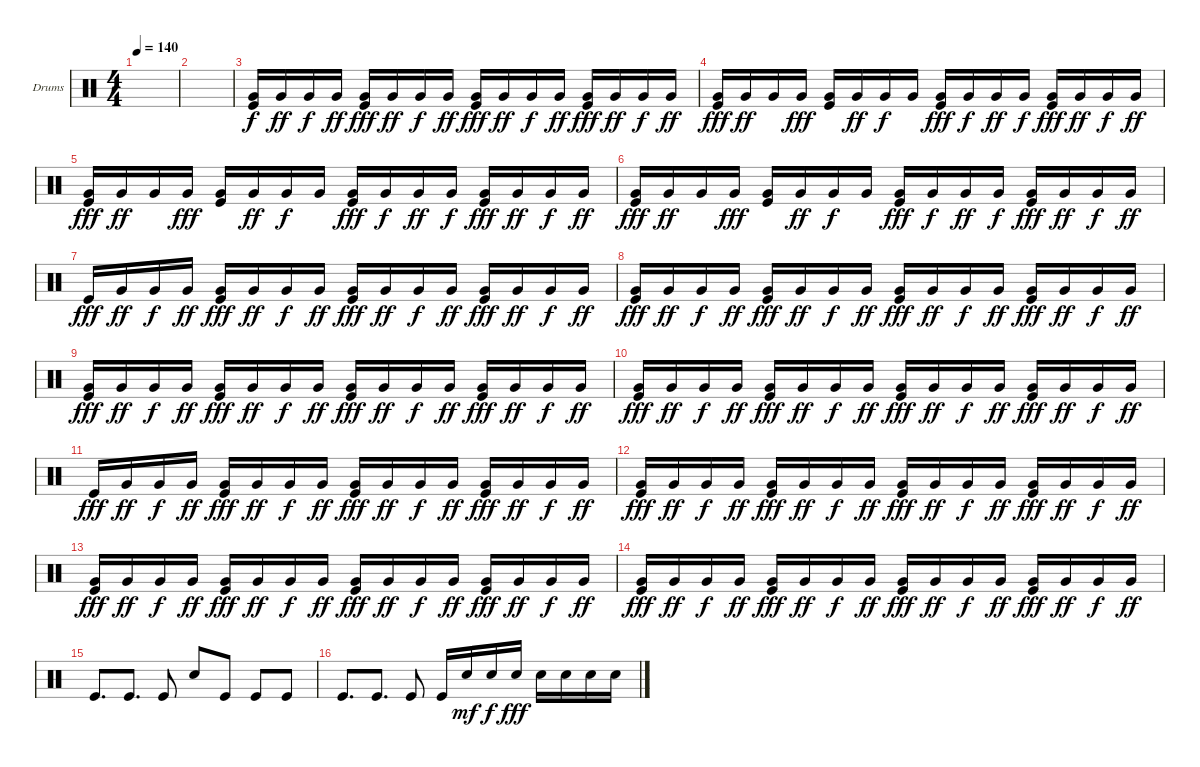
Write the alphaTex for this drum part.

\defaultSystemsLayout 4
\bracketExtendMode groupsimilarinstruments
\firstSystemTrackNameOrientation horizontal
\otherSystemsTrackNameOrientation horizontal
\track ("Helders" "Drums") {instrument percussion}
\staff {score}
\articulation defaults
\ts (4 4)
\tempo 140
\clef neutral
\ks c
|
|
("Very Low Tom (hit)" "Kick (hit)").16 "Very Low Tom (hit)".16{dy ff} "Very Low Tom (hit)".16{dy f} "Very Low Tom (hit)".16{dy ff} ("Very Low Tom (hit)" "Kick (hit)").16{dy fff} "Very Low Tom (hit)".16{dy ff} "Very Low Tom (hit)".16{dy f} "Very Low Tom (hit)".16{dy ff} ("Very Low Tom (hit)" "Kick (hit)").16{dy fff} "Very Low Tom (hit)".16{dy ff} "Very Low Tom (hit)".16{dy f} "Very Low Tom (hit)".16{dy ff} ("Very Low Tom (hit)" "Kick (hit)").16{dy fff} "Very Low Tom (hit)".16{dy ff} "Very Low Tom (hit)".16{dy f} "Very Low Tom (hit)".16{dy ff} |
("Very Low Tom (hit)" "Kick (hit)").16{dy fff} "Very Low Tom (hit)".16{dy ff} "Very Low Tom (hit)".16 "Very Low Tom (hit)".16{dy fff} ("Very Low Tom (hit)" "Kick (hit)").16 "Very Low Tom (hit)".16{dy ff} "Very Low Tom (hit)".16{dy f} "Very Low Tom (hit)".16 ("Very Low Tom (hit)" "Kick (hit)").16{dy fff} "Very Low Tom (hit)".16{dy f} "Very Low Tom (hit)".16{dy ff} "Very Low Tom (hit)".16{dy f} ("Very Low Tom (hit)" "Kick (hit)").16{dy fff} "Very Low Tom (hit)".16{dy ff} "Very Low Tom (hit)".16{dy f} "Very Low Tom (hit)".16{dy ff} |
("Very Low Tom (hit)" "Kick (hit)").16{dy fff} "Very Low Tom (hit)".16{dy ff} "Very Low Tom (hit)".16 "Very Low Tom (hit)".16{dy fff} ("Very Low Tom (hit)" "Kick (hit)").16 "Very Low Tom (hit)".16{dy ff} "Very Low Tom (hit)".16{dy f} "Very Low Tom (hit)".16 ("Very Low Tom (hit)" "Kick (hit)").16{dy fff} "Very Low Tom (hit)".16{dy f} "Very Low Tom (hit)".16{dy ff} "Very Low Tom (hit)".16{dy f} ("Very Low Tom (hit)" "Kick (hit)").16{dy fff} "Very Low Tom (hit)".16{dy ff} "Very Low Tom (hit)".16{dy f} "Very Low Tom (hit)".16{dy ff} |
("Very Low Tom (hit)" "Kick (hit)").16{dy fff} "Very Low Tom (hit)".16{dy ff} "Very Low Tom (hit)".16 "Very Low Tom (hit)".16{dy fff} ("Very Low Tom (hit)" "Kick (hit)").16 "Very Low Tom (hit)".16{dy ff} "Very Low Tom (hit)".16{dy f} "Very Low Tom (hit)".16 ("Very Low Tom (hit)" "Kick (hit)").16{dy fff} "Very Low Tom (hit)".16{dy f} "Very Low Tom (hit)".16{dy ff} "Very Low Tom (hit)".16{dy f} ("Very Low Tom (hit)" "Kick (hit)").16{dy fff} "Very Low Tom (hit)".16{dy ff} "Very Low Tom (hit)".16{dy f} "Very Low Tom (hit)".16{dy ff} |
"Kick (hit)".16{dy fff} "Very Low Tom (hit)".16{dy ff} "Very Low Tom (hit)".16{dy f} "Very Low Tom (hit)".16{dy ff} ("Very Low Tom (hit)" "Kick (hit)").16{dy fff} "Very Low Tom (hit)".16{dy ff} "Very Low Tom (hit)".16{dy f} "Very Low Tom (hit)".16{dy ff} ("Very Low Tom (hit)" "Kick (hit)").16{dy fff} "Very Low Tom (hit)".16{dy ff} "Very Low Tom (hit)".16{dy f} "Very Low Tom (hit)".16{dy ff} ("Very Low Tom (hit)" "Kick (hit)").16{dy fff} "Very Low Tom (hit)".16{dy ff} "Very Low Tom (hit)".16{dy f} "Very Low Tom (hit)".16{dy ff} |
("Very Low Tom (hit)" "Kick (hit)").16{dy fff} "Very Low Tom (hit)".16{dy ff} "Very Low Tom (hit)".16{dy f} "Very Low Tom (hit)".16{dy ff} ("Very Low Tom (hit)" "Kick (hit)").16{dy fff} "Very Low Tom (hit)".16{dy ff} "Very Low Tom (hit)".16{dy f} "Very Low Tom (hit)".16{dy ff} ("Very Low Tom (hit)" "Kick (hit)").16{dy fff} "Very Low Tom (hit)".16{dy ff} "Very Low Tom (hit)".16{dy f} "Very Low Tom (hit)".16{dy ff} ("Very Low Tom (hit)" "Kick (hit)").16{dy fff} "Very Low Tom (hit)".16{dy ff} "Very Low Tom (hit)".16{dy f} "Very Low Tom (hit)".16{dy ff} |
("Very Low Tom (hit)" "Kick (hit)").16{dy fff} "Very Low Tom (hit)".16{dy ff} "Very Low Tom (hit)".16{dy f} "Very Low Tom (hit)".16{dy ff} ("Very Low Tom (hit)" "Kick (hit)").16{dy fff} "Very Low Tom (hit)".16{dy ff} "Very Low Tom (hit)".16{dy f} "Very Low Tom (hit)".16{dy ff} ("Very Low Tom (hit)" "Kick (hit)").16{dy fff} "Very Low Tom (hit)".16{dy ff} "Very Low Tom (hit)".16{dy f} "Very Low Tom (hit)".16{dy ff} ("Very Low Tom (hit)" "Kick (hit)").16{dy fff} "Very Low Tom (hit)".16{dy ff} "Very Low Tom (hit)".16{dy f} "Very Low Tom (hit)".16{dy ff} |
("Very Low Tom (hit)" "Kick (hit)").16{dy fff} "Very Low Tom (hit)".16{dy ff} "Very Low Tom (hit)".16{dy f} "Very Low Tom (hit)".16{dy ff} ("Very Low Tom (hit)" "Kick (hit)").16{dy fff} "Very Low Tom (hit)".16{dy ff} "Very Low Tom (hit)".16{dy f} "Very Low Tom (hit)".16{dy ff} ("Very Low Tom (hit)" "Kick (hit)").16{dy fff} "Very Low Tom (hit)".16{dy ff} "Very Low Tom (hit)".16{dy f} "Very Low Tom (hit)".16{dy ff} ("Very Low Tom (hit)" "Kick (hit)").16{dy fff} "Very Low Tom (hit)".16{dy ff} "Very Low Tom (hit)".16{dy f} "Very Low Tom (hit)".16{dy ff} |
"Kick (hit)".16{dy fff} "Very Low Tom (hit)".16{dy ff} "Very Low Tom (hit)".16{dy f} "Very Low Tom (hit)".16{dy ff} ("Very Low Tom (hit)" "Kick (hit)").16{dy fff} "Very Low Tom (hit)".16{dy ff} "Very Low Tom (hit)".16{dy f} "Very Low Tom (hit)".16{dy ff} ("Very Low Tom (hit)" "Kick (hit)").16{dy fff} "Very Low Tom (hit)".16{dy ff} "Very Low Tom (hit)".16{dy f} "Very Low Tom (hit)".16{dy ff} ("Very Low Tom (hit)" "Kick (hit)").16{dy fff} "Very Low Tom (hit)".16{dy ff} "Very Low Tom (hit)".16{dy f} "Very Low Tom (hit)".16{dy ff} |
("Very Low Tom (hit)" "Kick (hit)").16{dy fff} "Very Low Tom (hit)".16{dy ff} "Very Low Tom (hit)".16{dy f} "Very Low Tom (hit)".16{dy ff} ("Very Low Tom (hit)" "Kick (hit)").16{dy fff} "Very Low Tom (hit)".16{dy ff} "Very Low Tom (hit)".16{dy f} "Very Low Tom (hit)".16{dy ff} ("Very Low Tom (hit)" "Kick (hit)").16{dy fff} "Very Low Tom (hit)".16{dy ff} "Very Low Tom (hit)".16{dy f} "Very Low Tom (hit)".16{dy ff} ("Very Low Tom (hit)" "Kick (hit)").16{dy fff} "Very Low Tom (hit)".16{dy ff} "Very Low Tom (hit)".16{dy f} "Very Low Tom (hit)".16{dy ff} |
("Very Low Tom (hit)" "Kick (hit)").16{dy fff} "Very Low Tom (hit)".16{dy ff} "Very Low Tom (hit)".16{dy f} "Very Low Tom (hit)".16{dy ff} ("Very Low Tom (hit)" "Kick (hit)").16{dy fff} "Very Low Tom (hit)".16{dy ff} "Very Low Tom (hit)".16{dy f} "Very Low Tom (hit)".16{dy ff} ("Very Low Tom (hit)" "Kick (hit)").16{dy fff} "Very Low Tom (hit)".16{dy ff} "Very Low Tom (hit)".16{dy f} "Very Low Tom (hit)".16{dy ff} ("Very Low Tom (hit)" "Kick (hit)").16{dy fff} "Very Low Tom (hit)".16{dy ff} "Very Low Tom (hit)".16{dy f} "Very Low Tom (hit)".16{dy ff} |
("Very Low Tom (hit)" "Kick (hit)").16{dy fff} "Very Low Tom (hit)".16{dy ff} "Very Low Tom (hit)".16{dy f} "Very Low Tom (hit)".16{dy ff} ("Very Low Tom (hit)" "Kick (hit)").16{dy fff} "Very Low Tom (hit)".16{dy ff} "Very Low Tom (hit)".16{dy f} "Very Low Tom (hit)".16{dy ff} ("Very Low Tom (hit)" "Kick (hit)").16{dy fff} "Very Low Tom (hit)".16{dy ff} "Very Low Tom (hit)".16{dy f} "Very Low Tom (hit)".16{dy ff} ("Very Low Tom (hit)" "Kick (hit)").16{dy fff} "Very Low Tom (hit)".16{dy ff} "Very Low Tom (hit)".16{dy f} "Very Low Tom (hit)".16{dy ff} |
"Kick (hit)".8{d} "Kick (hit)".8{d} "Kick (hit)".8 "Snare (hit) 2".8 "Kick (hit)".8 "Kick (hit)".8 "Kick (hit)".8 |
"Kick (hit)".8{d} "Kick (hit)".8{d} "Kick (hit)".8 "Kick (hit)".16 "Snare (hit) 2".16{dy mf} "Snare (hit) 2".16{dy f} "Snare (hit) 2".16{dy fff} "Snare (hit) 2".16 "Snare (hit) 2".16 "Snare (hit) 2".16 "Snare (hit) 2".16
